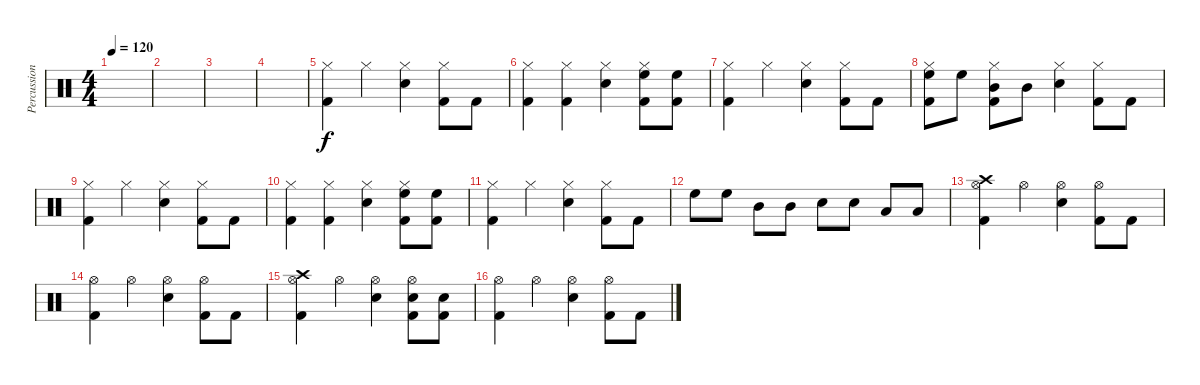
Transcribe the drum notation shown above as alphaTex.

\track ("Percussion" "Percussion") {instrument percussion}
\staff {score}
\articulation defaults
\ts (4 4)
\tempo 120
\clef neutral
\ks c
|
|
|
|
("Hi-Hat (closed)" "Kick (hit) 2").4 "Hi-Hat (closed)".4 ("Hi-Hat (closed)" "Snare (hit) 2").4 ("Hi-Hat (closed)" "Kick (hit) 2").8 "Kick (hit) 2".8 |
("Hi-Hat (closed)" "Kick (hit) 2").4 ("Hi-Hat (closed)" "Kick (hit) 2").4 ("Hi-Hat (closed)" "Snare (hit) 2").4 ("Hi-Hat (closed)" "High Floor Tom (hit)" "Kick (hit) 2").8 ("High Floor Tom (hit)" "Kick (hit) 2").8 |
("Hi-Hat (closed)" "Kick (hit) 2").4 "Hi-Hat (closed)".4 ("Hi-Hat (closed)" "Snare (hit) 2").4 ("Hi-Hat (closed)" "Kick (hit) 2").8 "Kick (hit) 2".8 |
("Hi-Hat (closed)" "High Floor Tom (hit)" "Kick (hit) 2").8 "High Floor Tom (hit)".8 ("Hi-Hat (closed)" "Mid Tom (hit)" "Kick (hit) 2").8 "Mid Tom (hit)".8 ("Hi-Hat (closed)" "Snare (hit) 2").4 ("Hi-Hat (closed)" "Kick (hit) 2").8 "Kick (hit) 2".8 |
("Hi-Hat (closed)" "Kick (hit) 2").4 "Hi-Hat (closed)".4 ("Hi-Hat (closed)" "Snare (hit) 2").4 ("Hi-Hat (closed)" "Kick (hit) 2").8 "Kick (hit) 2".8 |
("Hi-Hat (closed)" "Kick (hit) 2").4 ("Hi-Hat (closed)" "Kick (hit) 2").4 ("Hi-Hat (closed)" "Snare (hit) 2").4 ("Hi-Hat (closed)" "High Floor Tom (hit)" "Kick (hit) 2").8 ("High Floor Tom (hit)" "Kick (hit) 2").8 |
("Hi-Hat (closed)" "Kick (hit) 2").4 "Hi-Hat (closed)".4 ("Hi-Hat (closed)" "Snare (hit) 2").4 ("Hi-Hat (closed)" "Kick (hit) 2").8 "Kick (hit) 2".8 |
"High Floor Tom (hit)".8 "High Floor Tom (hit)".8 "Mid Tom (hit)".8 "Mid Tom (hit)".8 "Snare (hit) 2".8 "Snare (hit) 2".8 "Low Tom (hit)".8 "Low Tom (hit)".8 |
("Crash high (hit)" "Hi-Hat (open)" "Kick (hit) 2").4 "Hi-Hat (open)".4 ("Hi-Hat (open)" "Snare (hit) 2").4 ("Hi-Hat (open)" "Kick (hit) 2").8 "Kick (hit) 2".8 |
("Hi-Hat (open)" "Kick (hit) 2").4 "Hi-Hat (open)".4 ("Hi-Hat (open)" "Snare (hit) 2").4 ("Hi-Hat (open)" "Kick (hit) 2").8 "Kick (hit) 2".8 |
("Crash high (hit)" "Hi-Hat (open)" "Kick (hit) 2").4 "Hi-Hat (open)".4 ("Hi-Hat (open)" "Snare (hit) 2").4 ("Hi-Hat (open)" "Snare (hit) 2" "Kick (hit) 2").8 ("Snare (hit) 2" "Kick (hit) 2").8 |
("Hi-Hat (open)" "Kick (hit) 2").4 "Hi-Hat (open)".4 ("Hi-Hat (open)" "Snare (hit) 2").4 ("Hi-Hat (open)" "Kick (hit) 2").8 "Kick (hit) 2".8
